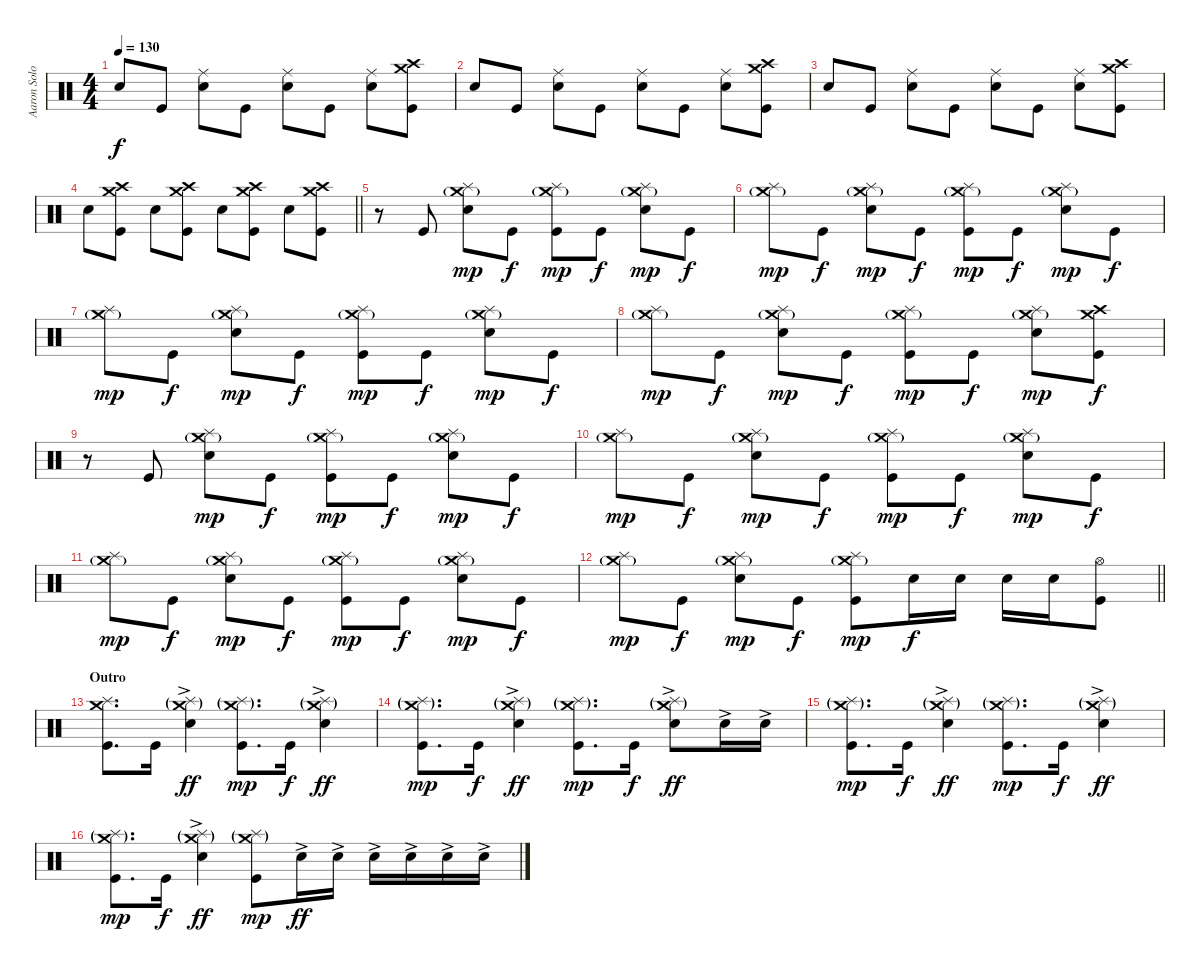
\track ("Aaron Solowoniuk" "Aaron Solo") {instrument percussion}
\staff {score}
\articulation defaults
\ts (4 4)
\tempo 130
\clef neutral
\ks c "Electric Snare (hit)".8{dy f} "Kick (hit)".8
("Ride (middle)" "Electric Snare (hit)").8 "Kick (hit)".8 ("Ride (middle)" "Electric Snare (hit)").8 "Kick (hit)".8 ("Ride (middle)" "Electric Snare (hit)").8 ("Crash medium (hit)" "Crash high (hit)" "Kick (hit)").8 |
"Electric Snare (hit)".8 "Kick (hit)".8 ("Ride (middle)" "Electric Snare (hit)").8 "Kick (hit)".8 ("Ride (middle)" "Electric Snare (hit)").8 "Kick (hit)".8 ("Ride (middle)" "Electric Snare (hit)").8 ("Crash medium (hit)" "Crash high (hit)" "Kick (hit)").8 |
"Electric Snare (hit)".8 "Kick (hit)".8 ("Ride (middle)" "Electric Snare (hit)").8 "Kick (hit)".8 ("Ride (middle)" "Electric Snare (hit)").8 "Kick (hit)".8 ("Ride (middle)" "Electric Snare (hit)").8 ("Crash medium (hit)" "Crash high (hit)" "Kick (hit)").8 |
\barLineRight lightlight "Electric Snare (hit)".8
("Crash medium (hit)" "Crash high (hit)" "Kick (hit)").8 "Electric Snare (hit)".8 ("Crash medium (hit)" "Crash high (hit)" "Kick (hit)").8 "Electric Snare (hit)".8 ("Crash medium (hit)" "Crash high (hit)" "Kick (hit)").8 "Electric Snare (hit)".8 ("Crash medium (hit)" "Crash high (hit)" "Kick (hit)").8 |
r.8 "Kick (hit)".8 ("Crash medium (hit)"{g} "Splash (hit)" "Electric Snare (hit)").8{dy mp} "Kick (hit)".8{dy f} ("Crash medium (hit)"{g} "Splash (hit)" "Kick (hit)").8{dy mp} "Kick (hit)".8{dy f} ("Crash medium (hit)"{g} "Splash (hit)" "Electric Snare (hit)").8{dy mp} "Kick (hit)".8{dy f} |
("Crash medium (hit)"{g} "Splash (hit)").8{dy mp} "Kick (hit)".8{dy f} ("Crash medium (hit)"{g} "Splash (hit)" "Electric Snare (hit)").8{dy mp} "Kick (hit)".8{dy f} ("Crash medium (hit)"{g} "Splash (hit)" "Kick (hit)").8{dy mp} "Kick (hit)".8{dy f} ("Crash medium (hit)"{g} "Splash (hit)" "Electric Snare (hit)").8{dy mp} "Kick (hit)".8{dy f} |
("Crash medium (hit)"{g} "Splash (hit)").8{dy mp} "Kick (hit)".8{dy f} ("Crash medium (hit)"{g} "Splash (hit)" "Electric Snare (hit)").8{dy mp} "Kick (hit)".8{dy f} ("Crash medium (hit)"{g} "Splash (hit)" "Kick (hit)").8{dy mp} "Kick (hit)".8{dy f} ("Crash medium (hit)"{g} "Splash (hit)" "Electric Snare (hit)").8{dy mp} "Kick (hit)".8{dy f} |
("Crash medium (hit)"{g} "Splash (hit)").8{dy mp} "Kick (hit)".8{dy f} ("Crash medium (hit)"{g} "Splash (hit)" "Electric Snare (hit)").8{dy mp} "Kick (hit)".8{dy f} ("Crash medium (hit)"{g} "Splash (hit)" "Kick (hit)").8{dy mp} "Kick (hit)".8{dy f} ("Crash medium (hit)"{g} "Splash (hit)" "Electric Snare (hit)").8{dy mp} ("Crash medium (hit)" "Crash high (hit)" "Kick (hit)").8{dy f} |
r.8 "Kick (hit)".8 ("Crash medium (hit)"{g} "Splash (hit)" "Electric Snare (hit)").8{dy mp} "Kick (hit)".8{dy f} ("Crash medium (hit)"{g} "Splash (hit)" "Kick (hit)").8{dy mp} "Kick (hit)".8{dy f} ("Crash medium (hit)"{g} "Splash (hit)" "Electric Snare (hit)").8{dy mp} "Kick (hit)".8{dy f} |
("Crash medium (hit)"{g} "Splash (hit)").8{dy mp} "Kick (hit)".8{dy f} ("Crash medium (hit)"{g} "Splash (hit)" "Electric Snare (hit)").8{dy mp} "Kick (hit)".8{dy f} ("Crash medium (hit)"{g} "Splash (hit)" "Kick (hit)").8{dy mp} "Kick (hit)".8{dy f} ("Crash medium (hit)"{g} "Splash (hit)" "Electric Snare (hit)").8{dy mp} "Kick (hit)".8{dy f} |
("Crash medium (hit)"{g} "Splash (hit)").8{dy mp} "Kick (hit)".8{dy f} ("Crash medium (hit)"{g} "Splash (hit)" "Electric Snare (hit)").8{dy mp} "Kick (hit)".8{dy f} ("Crash medium (hit)"{g} "Splash (hit)" "Kick (hit)").8{dy mp} "Kick (hit)".8{dy f} ("Crash medium (hit)"{g} "Splash (hit)" "Electric Snare (hit)").8{dy mp} "Kick (hit)".8{dy f} |
\barLineRight lightlight
("Crash medium (hit)"{g} "Splash (hit)").8{dy mp} "Kick (hit)".8{dy f} ("Crash medium (hit)"{g} "Splash (hit)" "Electric Snare (hit)").8{dy mp} "Kick (hit)".8{dy f} ("Crash medium (hit)"{g} "Splash (hit)" "Kick (hit)").8{dy mp} "Electric Snare (hit)".16{dy f} "Electric Snare (hit)".16 "Electric Snare (hit)".16 "Electric Snare (hit)".16 ("Hi-Hat (open)" "Kick (hit)").8 |
\section ("" "Outro")
("Crash medium (hit)" "Splash (hit)" "Kick (hit)").8{d} "Kick (hit)".16 ("Crash medium (hit)"{g} "Splash (hit)"{g} "Electric Snare (hit)"{ac}).4{dy ff} ("Crash medium (hit)"{g} "Splash (hit)"{g} "Kick (hit)").8{d dy mp} "Kick (hit)".16{dy f} ("Crash medium (hit)"{g} "Splash (hit)"{g} "Electric Snare (hit)"{ac}).4{dy ff} |
("Crash medium (hit)"{g} "Splash (hit)"{g} "Kick (hit)").8{d dy mp} "Kick (hit)".16{dy f} ("Crash medium (hit)"{g} "Splash (hit)"{g} "Electric Snare (hit)"{ac}).4{dy ff} ("Crash medium (hit)"{g} "Splash (hit)"{g} "Kick (hit)").8{d dy mp} "Kick (hit)".16{dy f} ("Crash medium (hit)"{g} "Splash (hit)"{g} "Electric Snare (hit)"{ac}).8{dy ff} "Electric Snare (hit)"{ac}.16 "Electric Snare (hit)"{ac}.16 |
("Crash medium (hit)"{g} "Splash (hit)"{g} "Kick (hit)").8{d dy mp} "Kick (hit)".16{dy f} ("Crash medium (hit)"{g} "Splash (hit)"{g} "Electric Snare (hit)"{ac}).4{dy ff} ("Crash medium (hit)"{g} "Splash (hit)"{g} "Kick (hit)").8{d dy mp} "Kick (hit)".16{dy f} ("Crash medium (hit)"{g} "Splash (hit)"{g} "Electric Snare (hit)"{ac}).4{dy ff} |
("Crash medium (hit)"{g} "Splash (hit)"{g} "Kick (hit)").8{d dy mp} "Kick (hit)".16{dy f} ("Crash medium (hit)"{g} "Splash (hit)"{g} "Electric Snare (hit)"{ac}).4{dy ff} ("Crash medium (hit)"{g} "Splash (hit)"{g} "Kick (hit)").8{dy mp} "Electric Snare (hit)"{ac}.16{dy ff} "Electric Snare (hit)"{ac}.16 "Electric Snare (hit)"{ac}.16 "Electric Snare (hit)"{ac}.16 "Electric Snare (hit)"{ac}.16 "Electric Snare (hit)"{ac}.16
